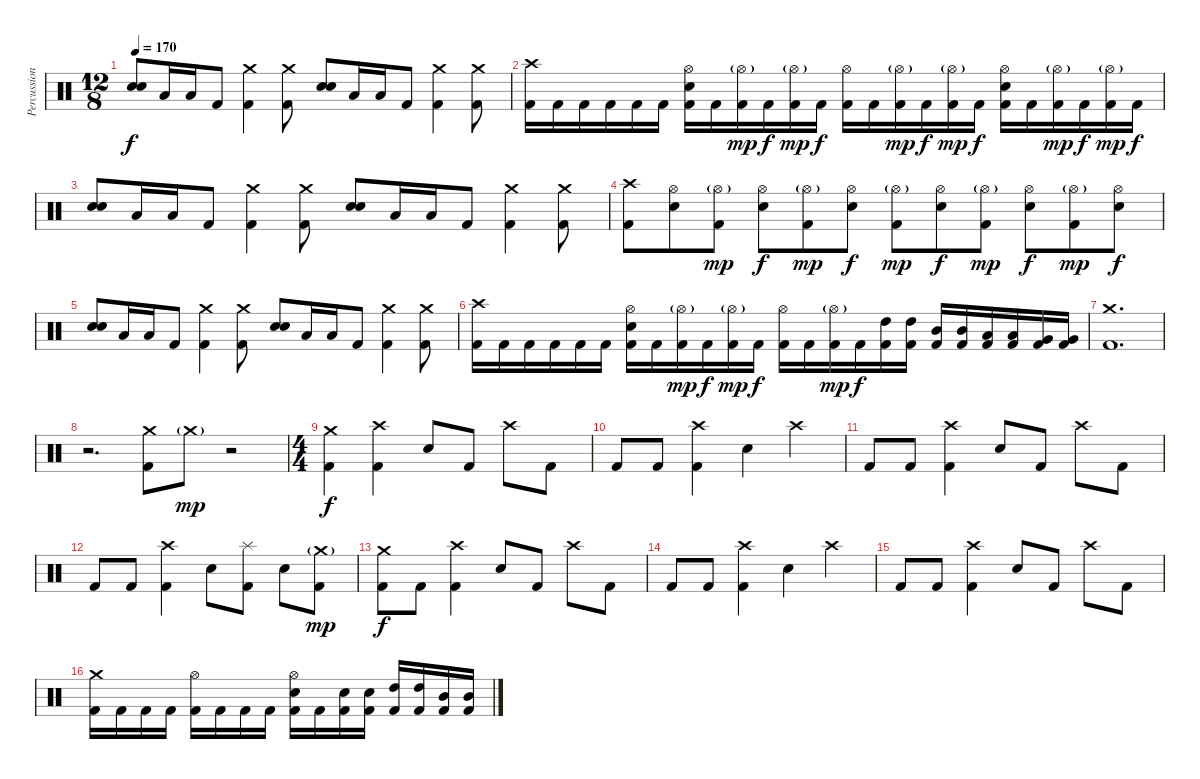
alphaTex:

\track ("Percussion" "Percussion") {instrument percussion}
\staff {score}
\articulation defaults
\ts (12 8)
\tempo 170
\clef neutral
\ks c
("Electric Snare (hit)" "Electric Snare (hit)").8{bd 240 dy f} "Low Floor Tom (hit)".16 "Low Floor Tom (hit)".16 "Kick (hit) 2".8 ("Crash medium (hit)" "Kick (hit) 2").4 ("Crash medium (hit)" "Kick (hit) 2").8 ("Electric Snare (hit)" "Electric Snare (hit)").8{bd 240} "Low Floor Tom (hit)".16 "Low Floor Tom (hit)".16 "Kick (hit) 2".8 ("Crash medium (hit)" "Kick (hit) 2").4 ("Crash medium (hit)" "Kick (hit) 2").8 |
("Crash high (hit)" "Kick (hit) 2").16 "Kick (hit) 2".16 "Kick (hit) 2".16 "Kick (hit) 2".16 "Kick (hit) 2".16 "Kick (hit) 2".16 ("Hi-Hat (open)" "Electric Snare (hit)" "Kick (hit) 2").16 "Kick (hit) 2".16 ("Hi-Hat (open)"{g} "Kick (hit) 2").16{dy mp} "Kick (hit) 2".16{dy f} ("Hi-Hat (open)"{g} "Kick (hit) 2").16{dy mp} "Kick (hit) 2".16{dy f} ("Hi-Hat (open)" "Kick (hit) 2").16 "Kick (hit) 2".16 ("Hi-Hat (open)"{g} "Kick (hit) 2").16{dy mp} "Kick (hit) 2".16{dy f} ("Hi-Hat (open)"{g} "Kick (hit) 2").16{dy mp} "Kick (hit) 2".16{dy f} ("Hi-Hat (open)" "Electric Snare (hit)" "Kick (hit) 2").16 "Kick (hit) 2".16 ("Hi-Hat (open)"{g} "Kick (hit) 2").16{dy mp} "Kick (hit) 2".16{dy f} ("Hi-Hat (open)"{g} "Kick (hit) 2").16{dy mp} "Kick (hit) 2".16{dy f} |
("Electric Snare (hit)" "Electric Snare (hit)").8{bd 240} "Low Floor Tom (hit)".16 "Low Floor Tom (hit)".16 "Kick (hit) 2".8 ("Crash medium (hit)" "Kick (hit) 2").4 ("Crash medium (hit)" "Kick (hit) 2").8 ("Electric Snare (hit)" "Electric Snare (hit)").8{bd 240} "Low Floor Tom (hit)".16 "Low Floor Tom (hit)".16 "Kick (hit) 2".8 ("Crash medium (hit)" "Kick (hit) 2").4 ("Crash medium (hit)" "Kick (hit) 2").8 |
("Crash high (hit)" "Kick (hit) 2").8 ("Hi-Hat (open)" "Electric Snare (hit)").8 ("Hi-Hat (open)"{g} "Kick (hit) 2").8{dy mp} ("Hi-Hat (open)" "Electric Snare (hit)").8{dy f} ("Hi-Hat (open)"{g} "Kick (hit) 2").8{dy mp} ("Hi-Hat (open)" "Electric Snare (hit)").8{dy f} ("Hi-Hat (open)"{g} "Kick (hit) 2").8{dy mp} ("Hi-Hat (open)" "Electric Snare (hit)").8{dy f} ("Hi-Hat (open)"{g} "Kick (hit) 2").8{dy mp} ("Hi-Hat (open)" "Electric Snare (hit)").8{dy f} ("Hi-Hat (open)"{g} "Kick (hit) 2").8{dy mp} ("Hi-Hat (open)" "Electric Snare (hit)").8{dy f} |
("Electric Snare (hit)" "Electric Snare (hit)").8{bd 240} "Low Floor Tom (hit)".16 "Low Floor Tom (hit)".16 "Kick (hit) 2".8 ("Crash medium (hit)" "Kick (hit) 2").4 ("Crash medium (hit)" "Kick (hit) 2").8 ("Electric Snare (hit)" "Electric Snare (hit)").8{bd 240} "Low Floor Tom (hit)".16 "Low Floor Tom (hit)".16 "Kick (hit) 2".8 ("Crash medium (hit)" "Kick (hit) 2").4 ("Crash medium (hit)" "Kick (hit) 2").8 |
("Crash high (hit)" "Kick (hit) 2").16 "Kick (hit) 2".16 "Kick (hit) 2".16 "Kick (hit) 2".16 "Kick (hit) 2".16 "Kick (hit) 2".16 ("Hi-Hat (open)" "Electric Snare (hit)" "Kick (hit) 2").16 "Kick (hit) 2".16 ("Hi-Hat (open)"{g} "Kick (hit) 2").16{dy mp} "Kick (hit) 2".16{dy f} ("Hi-Hat (open)"{g} "Kick (hit) 2").16{dy mp} "Kick (hit) 2".16{dy f} ("Hi-Hat (open)" "Kick (hit) 2").16 "Kick (hit) 2".16 ("Hi-Hat (open)"{g} "Kick (hit) 2").16{dy mp} "Kick (hit) 2".16{dy f} ("High Tom (hit)" "Kick (hit) 2").16 ("High Tom (hit)" "Kick (hit) 2").16 ("Mid Tom (hit)" "Kick (hit) 2").16 ("Mid Tom (hit)" "Kick (hit) 2").16 ("Low Tom (hit)" "Kick (hit) 2").16 ("Low Tom (hit)" "Kick (hit) 2").16 ("Very Low Tom (hit)" "Kick (hit) 2").16 ("Very Low Tom (hit)" "Kick (hit) 2").16 |
("Crash medium (hit)" "Kick (hit) 2").1{d} |
r.2{d} ("Crash medium (hit)" "Kick (hit) 2").8 "Crash medium (hit)"{g}.8{dy mp} r.2 |
\ts (4 4)
("Crash medium (hit)" "Kick (hit) 2").4{dy f} ("Crash high (hit)" "Kick (hit) 2").4 "Electric Snare (hit)".8 "Kick (hit) 2".8 "Crash high (hit)".8 "Kick (hit) 2".8 |
"Kick (hit) 2".8 "Kick (hit) 2".8 ("Crash high (hit)" "Kick (hit) 2").4 "Electric Snare (hit)".4 "Crash high (hit)".4 |
"Kick (hit) 2".8 "Kick (hit) 2".8 ("Crash high (hit)" "Kick (hit) 2").4 "Electric Snare (hit)".8 "Kick (hit) 2".8 "Crash high (hit)".8 "Kick (hit) 2".8 |
"Kick (hit) 2".8 "Kick (hit) 2".8 ("Crash high (hit)" "Kick (hit) 2").4 "Electric Snare (hit)".8 ("Splash (hit)" "Kick (hit) 2").8 "Electric Snare (hit)".8 ("Crash medium (hit)"{g} "Kick (hit) 2").8{dy mp} |
("Crash medium (hit)" "Kick (hit) 2").8{dy f} "Kick (hit) 2".8 ("Crash high (hit)" "Kick (hit) 2").4 "Electric Snare (hit)".8 "Kick (hit) 2".8 "Crash high (hit)".8 "Kick (hit) 2".8 |
"Kick (hit) 2".8 "Kick (hit) 2".8 ("Crash high (hit)" "Kick (hit) 2").4 "Electric Snare (hit)".4 "Crash high (hit)".4 |
"Kick (hit) 2".8 "Kick (hit) 2".8 ("Crash high (hit)" "Kick (hit) 2").4 "Electric Snare (hit)".8 "Kick (hit) 2".8 "Crash high (hit)".8 "Kick (hit) 2".8 |
("Crash medium (hit)" "Kick (hit) 2").16 "Kick (hit) 2".16 "Kick (hit) 2".16 "Kick (hit) 2".16 ("Hi-Hat (open)" "Kick (hit) 2").16 "Kick (hit) 2".16 "Kick (hit) 2".16 "Kick (hit) 2".16 ("Hi-Hat (open)" "Electric Snare (hit)" "Kick (hit) 2").16 "Kick (hit) 2".16 ("Electric Snare (hit)" "Kick (hit) 2").16 ("Electric Snare (hit)" "Kick (hit) 2").16 ("High Tom (hit)" "Kick (hit) 2").16 ("High Tom (hit)" "Kick (hit) 2").16 ("Mid Tom (hit)" "Kick (hit) 2").16 ("Mid Tom (hit)" "Kick (hit) 2").16
